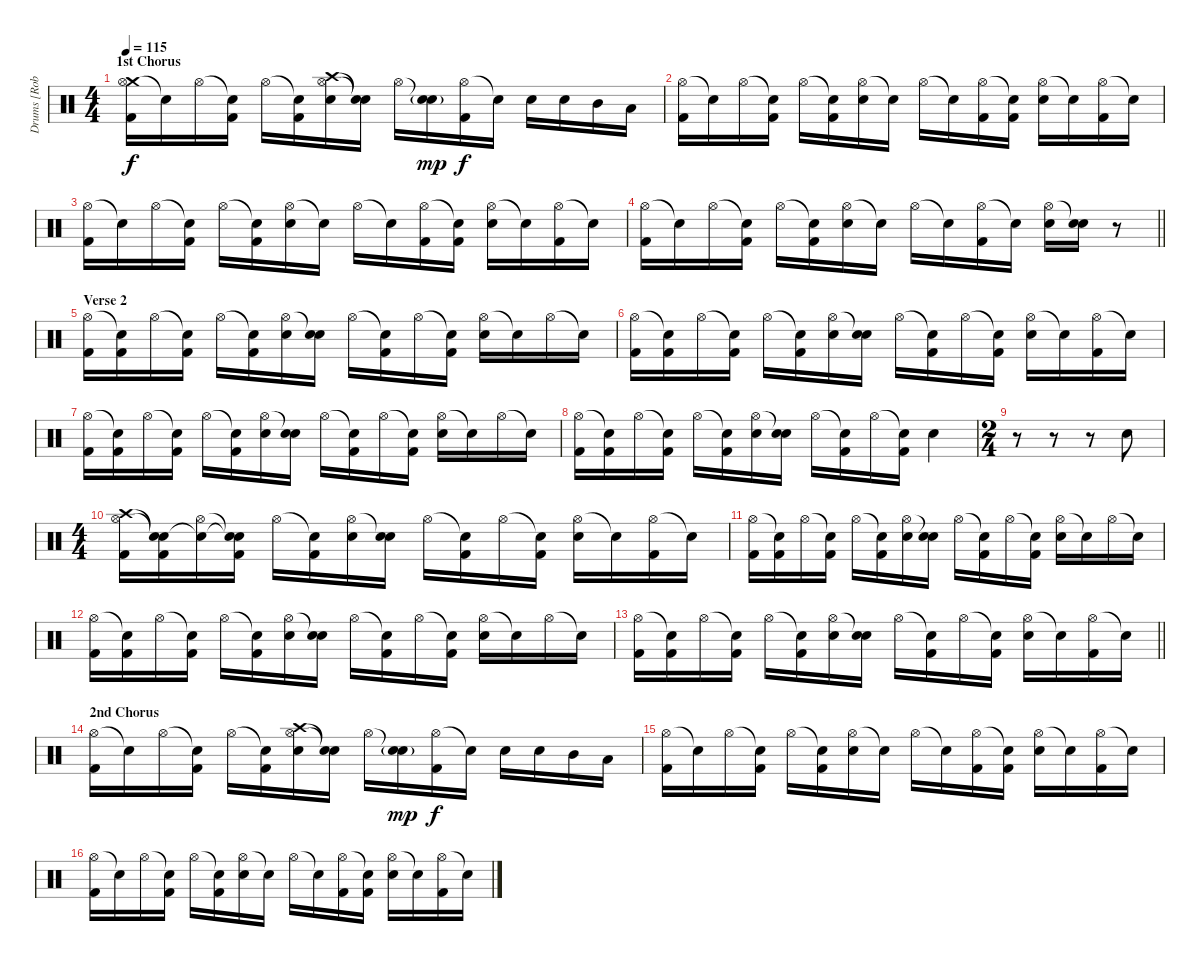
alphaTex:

\track ("Drums [Rob Bourdon]" "Drums [Rob") {instrument percussion}
\staff {score}
\articulation defaults
\ts (4 4)
\section ("" "1st Chorus")
\tempo 115
\clef neutral
\ks c
("Crash medium (hit)" "Hi-Hat (open)" "Kick (hit) 2").16{dy f} "Snare (hit)"{t}.16 "Hi-Hat (open)".16 ("Snare (hit)"{t} "Kick (hit) 2").16 "Hi-Hat (open)".16 ("Snare (hit)"{t} "Kick (hit) 2").16 ("Crash high (hit)" "Hi-Hat (open)" "Electric Snare (hit)").16 ("Snare (hit)"{t} "Snare (hit)"{t}).16 "Hi-Hat (open)".16 ("Snare (hit)"{t} "Electric Snare (hit)"{g}).16{dy mp} ("Hi-Hat (open)" "Kick (hit) 2").16{dy f} "Snare (hit)"{t}.16 "Electric Snare (hit)".16 "Electric Snare (hit)".16 "Mid Tom (hit)".16 "Low Tom (hit)".16 |
("Hi-Hat (open)" "Kick (hit) 2").16 "Snare (hit)"{t}.16 "Hi-Hat (open)".16 ("Snare (hit)"{t} "Kick (hit) 2").16 "Hi-Hat (open)".16 ("Snare (hit)"{t} "Kick (hit) 2").16 ("Hi-Hat (open)" "Electric Snare (hit)").16 "Snare (hit)"{t}.16 "Hi-Hat (open)".16 "Snare (hit)"{t}.16 ("Hi-Hat (open)" "Kick (hit) 2").16 ("Snare (hit)"{t} "Kick (hit) 2").16 ("Hi-Hat (open)" "Electric Snare (hit)").16 "Snare (hit)"{t}.16 ("Hi-Hat (open)" "Kick (hit) 2").16 "Snare (hit)"{t}.16 |
("Hi-Hat (open)" "Kick (hit) 2").16 "Snare (hit)"{t}.16 "Hi-Hat (open)".16 ("Snare (hit)"{t} "Kick (hit) 2").16 "Hi-Hat (open)".16 ("Snare (hit)"{t} "Kick (hit) 2").16 ("Hi-Hat (open)" "Electric Snare (hit)").16 "Snare (hit)"{t}.16 "Hi-Hat (open)".16 "Snare (hit)"{t}.16 ("Hi-Hat (open)" "Kick (hit) 2").16 ("Snare (hit)"{t} "Kick (hit) 2").16 ("Hi-Hat (open)" "Electric Snare (hit)").16 "Snare (hit)"{t}.16 ("Hi-Hat (open)" "Kick (hit) 2").16 "Snare (hit)"{t}.16 |
\barLineRight lightlight
("Hi-Hat (open)" "Kick (hit) 2").16 "Snare (hit)"{t}.16 "Hi-Hat (open)".16 ("Snare (hit)"{t} "Kick (hit) 2").16 "Hi-Hat (open)".16 ("Snare (hit)"{t} "Kick (hit) 2").16 ("Hi-Hat (open)" "Electric Snare (hit)").16 "Snare (hit)"{t}.16 "Hi-Hat (open)".16 "Snare (hit)"{t}.16 ("Hi-Hat (open)" "Kick (hit) 2").16 "Snare (hit)"{t}.16 ("Hi-Hat (open)" "Electric Snare (hit)").16 ("Snare (hit)"{t} "Electric Snare (hit)").16 r.8 |
\section ("" "Verse 2")
("Hi-Hat (open)" "Kick (hit) 2").16 ("Snare (hit)"{t} "Kick (hit) 2").16 "Hi-Hat (open)".16 ("Snare (hit)"{t} "Kick (hit) 2").16 "Hi-Hat (open)".16 ("Snare (hit)"{t} "Kick (hit) 2").16 ("Hi-Hat (open)" "Electric Snare (hit)").16 ("Snare (hit)"{t} "Electric Snare (hit)").16 "Hi-Hat (open)".16 ("Snare (hit)"{t} "Kick (hit) 2").16 "Hi-Hat (open)".16 ("Snare (hit)"{t} "Kick (hit) 2").16 ("Hi-Hat (open)" "Electric Snare (hit)").16 "Snare (hit)"{t}.16 "Hi-Hat (open)".16 "Snare (hit)"{t}.16 |
("Hi-Hat (open)" "Kick (hit) 2").16 ("Snare (hit)"{t} "Kick (hit) 2").16 "Hi-Hat (open)".16 ("Snare (hit)"{t} "Kick (hit) 2").16 "Hi-Hat (open)".16 ("Snare (hit)"{t} "Kick (hit) 2").16 ("Hi-Hat (open)" "Electric Snare (hit)").16 ("Snare (hit)"{t} "Electric Snare (hit)").16 "Hi-Hat (open)".16 ("Snare (hit)"{t} "Kick (hit) 2").16 "Hi-Hat (open)".16 ("Snare (hit)"{t} "Kick (hit) 2").16 ("Hi-Hat (open)" "Electric Snare (hit)").16 "Snare (hit)"{t}.16 ("Hi-Hat (open)" "Kick (hit) 2").16 "Snare (hit)"{t}.16 |
("Hi-Hat (open)" "Kick (hit) 2").16 ("Snare (hit)"{t} "Kick (hit) 2").16 "Hi-Hat (open)".16 ("Snare (hit)"{t} "Kick (hit) 2").16 "Hi-Hat (open)".16 ("Snare (hit)"{t} "Kick (hit) 2").16 ("Hi-Hat (open)" "Electric Snare (hit)").16 ("Snare (hit)"{t} "Electric Snare (hit)").16 "Hi-Hat (open)".16 ("Snare (hit)"{t} "Kick (hit) 2").16 "Hi-Hat (open)".16 ("Snare (hit)"{t} "Kick (hit) 2").16 ("Hi-Hat (open)" "Electric Snare (hit)").16 "Snare (hit)"{t}.16 "Hi-Hat (open)".16 "Snare (hit)"{t}.16 |
("Hi-Hat (open)" "Kick (hit) 2").16 ("Snare (hit)"{t} "Kick (hit) 2").16 "Hi-Hat (open)".16 ("Snare (hit)"{t} "Kick (hit) 2").16 "Hi-Hat (open)".16 ("Snare (hit)"{t} "Kick (hit) 2").16 ("Hi-Hat (open)" "Electric Snare (hit)").16 ("Snare (hit)"{t} "Electric Snare (hit)").16 "Hi-Hat (open)".16 ("Snare (hit)"{t} "Kick (hit) 2").16 "Hi-Hat (open)".16 ("Snare (hit)"{t} "Kick (hit) 2").16 "Electric Snare (hit)".4 |
\ts (2 4)
r.8 r.8 r.8 "Electric Snare (hit)".8 |
\ts (4 4)
("Crash high (hit)" "Hi-Hat (open)" "Kick (hit) 2").16 ("Snare (hit)"{t} "Snare (hit)"{t} "Kick (hit) 2").16 ("Snare (hit)"{t} "Hi-Hat (open)").16 ("Snare (hit)"{t} "Snare (hit)"{t} "Kick (hit) 2").16 "Hi-Hat (open)".16 ("Snare (hit)"{t} "Kick (hit) 2").16 ("Hi-Hat (open)" "Electric Snare (hit)").16 ("Snare (hit)"{t} "Electric Snare (hit)").16 "Hi-Hat (open)".16 ("Snare (hit)"{t} "Kick (hit) 2").16 "Hi-Hat (open)".16 ("Snare (hit)"{t} "Kick (hit) 2").16 ("Hi-Hat (open)" "Electric Snare (hit)").16 "Snare (hit)"{t}.16 ("Hi-Hat (open)" "Kick (hit) 2").16 "Snare (hit)"{t}.16 |
("Hi-Hat (open)" "Kick (hit) 2").16 ("Snare (hit)"{t} "Kick (hit) 2").16 "Hi-Hat (open)".16 ("Snare (hit)"{t} "Kick (hit) 2").16 "Hi-Hat (open)".16 ("Snare (hit)"{t} "Kick (hit) 2").16 ("Hi-Hat (open)" "Electric Snare (hit)").16 ("Snare (hit)"{t} "Electric Snare (hit)").16 "Hi-Hat (open)".16 ("Snare (hit)"{t} "Kick (hit) 2").16 "Hi-Hat (open)".16 ("Snare (hit)"{t} "Kick (hit) 2").16 ("Hi-Hat (open)" "Electric Snare (hit)").16 "Snare (hit)"{t}.16 "Hi-Hat (open)".16 "Snare (hit)"{t}.16 |
("Hi-Hat (open)" "Kick (hit) 2").16 ("Snare (hit)"{t} "Kick (hit) 2").16 "Hi-Hat (open)".16 ("Snare (hit)"{t} "Kick (hit) 2").16 "Hi-Hat (open)".16 ("Snare (hit)"{t} "Kick (hit) 2").16 ("Hi-Hat (open)" "Electric Snare (hit)").16 ("Snare (hit)"{t} "Electric Snare (hit)").16 "Hi-Hat (open)".16 ("Snare (hit)"{t} "Kick (hit) 2").16 "Hi-Hat (open)".16 ("Snare (hit)"{t} "Kick (hit) 2").16 ("Hi-Hat (open)" "Electric Snare (hit)").16 "Snare (hit)"{t}.16 "Hi-Hat (open)".16 "Snare (hit)"{t}.16 |
\barLineRight lightlight
("Hi-Hat (open)" "Kick (hit) 2").16 ("Snare (hit)"{t} "Kick (hit) 2").16 "Hi-Hat (open)".16 ("Snare (hit)"{t} "Kick (hit) 2").16 "Hi-Hat (open)".16 ("Snare (hit)"{t} "Kick (hit) 2").16 ("Hi-Hat (open)" "Electric Snare (hit)").16 ("Snare (hit)"{t} "Electric Snare (hit)").16 "Hi-Hat (open)".16 ("Snare (hit)"{t} "Kick (hit) 2").16 "Hi-Hat (open)".16 ("Snare (hit)"{t} "Kick (hit) 2").16 ("Hi-Hat (open)" "Electric Snare (hit)").16 "Snare (hit)"{t}.16 ("Hi-Hat (open)" "Kick (hit) 2").16 "Snare (hit)"{t}.16 |
\section ("" "2nd Chorus")
("Hi-Hat (open)" "Kick (hit) 2").16 "Snare (hit)"{t}.16 "Hi-Hat (open)".16 ("Snare (hit)"{t} "Kick (hit) 2").16 "Hi-Hat (open)".16 ("Snare (hit)"{t} "Kick (hit) 2").16 ("Crash high (hit)" "Hi-Hat (open)" "Electric Snare (hit)").16 ("Snare (hit)"{t} "Snare (hit)"{t}).16 "Hi-Hat (open)".16 ("Snare (hit)"{t} "Electric Snare (hit)"{g}).16{dy mp} ("Hi-Hat (open)" "Kick (hit) 2").16{dy f} "Snare (hit)"{t}.16 "Electric Snare (hit)".16 "Electric Snare (hit)".16 "Mid Tom (hit)".16 "Low Tom (hit)".16 |
("Hi-Hat (open)" "Kick (hit) 2").16 "Snare (hit)"{t}.16 "Hi-Hat (open)".16 ("Snare (hit)"{t} "Kick (hit) 2").16 "Hi-Hat (open)".16 ("Snare (hit)"{t} "Kick (hit) 2").16 ("Hi-Hat (open)" "Electric Snare (hit)").16 "Snare (hit)"{t}.16 "Hi-Hat (open)".16 "Snare (hit)"{t}.16 ("Hi-Hat (open)" "Kick (hit) 2").16 ("Snare (hit)"{t} "Kick (hit) 2").16 ("Hi-Hat (open)" "Electric Snare (hit)").16 "Snare (hit)"{t}.16 ("Hi-Hat (open)" "Kick (hit) 2").16 "Snare (hit)"{t}.16 |
("Hi-Hat (open)" "Kick (hit) 2").16 "Snare (hit)"{t}.16 "Hi-Hat (open)".16 ("Snare (hit)"{t} "Kick (hit) 2").16 "Hi-Hat (open)".16 ("Snare (hit)"{t} "Kick (hit) 2").16 ("Hi-Hat (open)" "Electric Snare (hit)").16 "Snare (hit)"{t}.16 "Hi-Hat (open)".16 "Snare (hit)"{t}.16 ("Hi-Hat (open)" "Kick (hit) 2").16 ("Snare (hit)"{t} "Kick (hit) 2").16 ("Hi-Hat (open)" "Electric Snare (hit)").16 "Snare (hit)"{t}.16 ("Hi-Hat (open)" "Kick (hit) 2").16 "Snare (hit)"{t}.16
